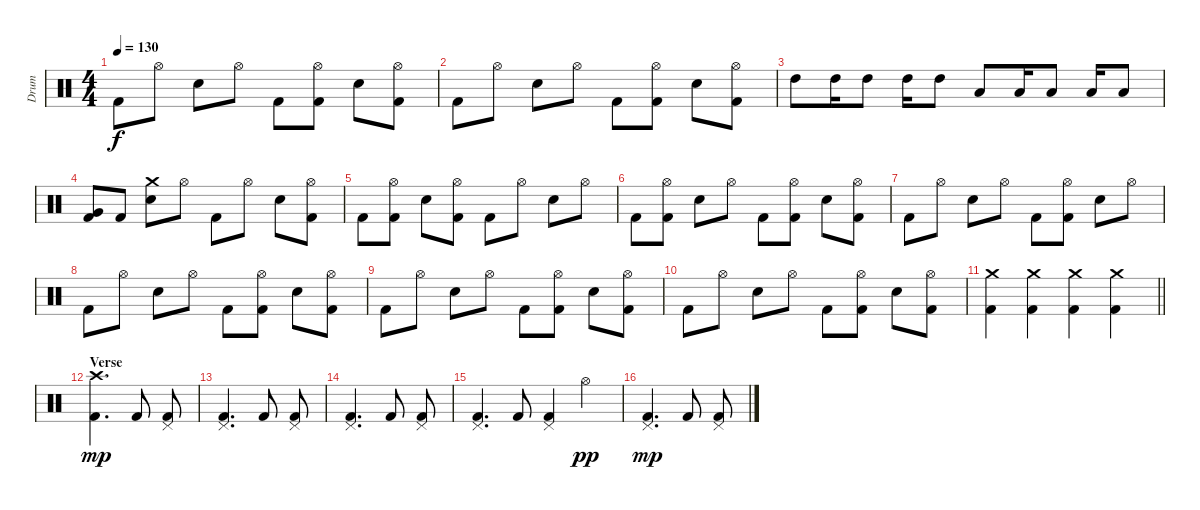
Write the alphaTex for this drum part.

\track ("Drum" "Drum") {instrument percussion}
\staff {score}
\articulation defaults
\ts (4 4)
\tempo 130
\clef neutral
\ks c "Kick (hit) 2".8{dy f} "Hi-Hat (open)".8 "Electric Snare (hit)".8 "Hi-Hat (open)".8 "Kick (hit) 2".8
("Hi-Hat (open)" "Kick (hit) 2").8 "Electric Snare (hit)".8 ("Hi-Hat (open)" "Kick (hit) 2").8 |
"Kick (hit) 2".8 "Hi-Hat (open)".8 "Electric Snare (hit)".8 "Hi-Hat (open)".8 "Kick (hit) 2".8 ("Hi-Hat (open)" "Kick (hit) 2").8 "Electric Snare (hit)".8 ("Hi-Hat (open)" "Kick (hit) 2").8 |
"High Tom (hit)".8 "High Tom (hit)".16 "High Tom (hit)".8 "High Tom (hit)".16 "High Tom (hit)".8 "Low Tom (hit)".8 "Low Tom (hit)".16 "Low Tom (hit)".8 "Low Tom (hit)".16 "Low Tom (hit)".8 |
("Very Low Tom (hit)" "Kick (hit) 2").8 "Kick (hit) 2".8 ("Crash medium (hit)" "Electric Snare (hit)").8 "Hi-Hat (open)".8 "Kick (hit) 2".8 "Hi-Hat (open)".8 "Electric Snare (hit)".8 ("Hi-Hat (open)" "Kick (hit) 2").8 |
"Kick (hit) 2".8 ("Hi-Hat (open)" "Kick (hit) 2").8 "Electric Snare (hit)".8 ("Hi-Hat (open)" "Kick (hit) 2").8 "Kick (hit) 2".8 "Hi-Hat (open)".8 "Electric Snare (hit)".8 "Hi-Hat (open)".8 |
"Kick (hit) 2".8 ("Hi-Hat (open)" "Kick (hit) 2").8 "Electric Snare (hit)".8 "Hi-Hat (open)".8 "Kick (hit) 2".8 ("Hi-Hat (open)" "Kick (hit) 2").8 "Electric Snare (hit)".8 ("Hi-Hat (open)" "Kick (hit) 2").8 |
"Kick (hit) 2".8 "Hi-Hat (open)".8 "Electric Snare (hit)".8 "Hi-Hat (open)".8 "Kick (hit) 2".8 ("Hi-Hat (open)" "Kick (hit) 2").8 "Electric Snare (hit)".8 "Hi-Hat (open)".8 |
"Kick (hit) 2".8 "Hi-Hat (open)".8 "Electric Snare (hit)".8 "Hi-Hat (open)".8 "Kick (hit) 2".8 ("Hi-Hat (open)" "Kick (hit) 2").8 "Electric Snare (hit)".8 ("Hi-Hat (open)" "Kick (hit) 2").8 |
"Kick (hit) 2".8 "Hi-Hat (open)".8 "Electric Snare (hit)".8 "Hi-Hat (open)".8 "Kick (hit) 2".8 ("Hi-Hat (open)" "Kick (hit) 2").8 "Electric Snare (hit)".8 ("Hi-Hat (open)" "Kick (hit) 2").8 |
"Kick (hit) 2".8 "Hi-Hat (open)".8 "Electric Snare (hit)".8 "Hi-Hat (open)".8 "Kick (hit) 2".8 ("Hi-Hat (open)" "Kick (hit) 2").8 "Electric Snare (hit)".8 ("Hi-Hat (open)" "Kick (hit) 2").8 |
\barLineRight lightlight
("Crash medium (hit)" "Kick (hit) 2").4 ("Crash medium (hit)" "Kick (hit) 2").4 ("Crash medium (hit)" "Kick (hit) 2").4 ("Crash medium (hit)" "Kick (hit) 2").4 |
\section ("" "Verse")
("Crash high (hit)" "Kick (hit) 2").4{d dy mp} "Kick (hit) 2".8 ("Pedal Hi-Hat (hit)" "Kick (hit) 2").8 |
("Pedal Hi-Hat (hit)" "Kick (hit) 2").4{d} "Kick (hit) 2".8 ("Pedal Hi-Hat (hit)" "Kick (hit) 2").8 |
("Pedal Hi-Hat (hit)" "Kick (hit) 2").4{d} "Kick (hit) 2".8 ("Pedal Hi-Hat (hit)" "Kick (hit) 2").8 |
("Pedal Hi-Hat (hit)" "Kick (hit) 2").4{d} "Kick (hit) 2".8 ("Pedal Hi-Hat (hit)" "Kick (hit) 2").4 "Hi-Hat (open)".4{dy pp} |
("Pedal Hi-Hat (hit)" "Kick (hit) 2").4{d dy mp} "Kick (hit) 2".8 ("Pedal Hi-Hat (hit)" "Kick (hit) 2").8
